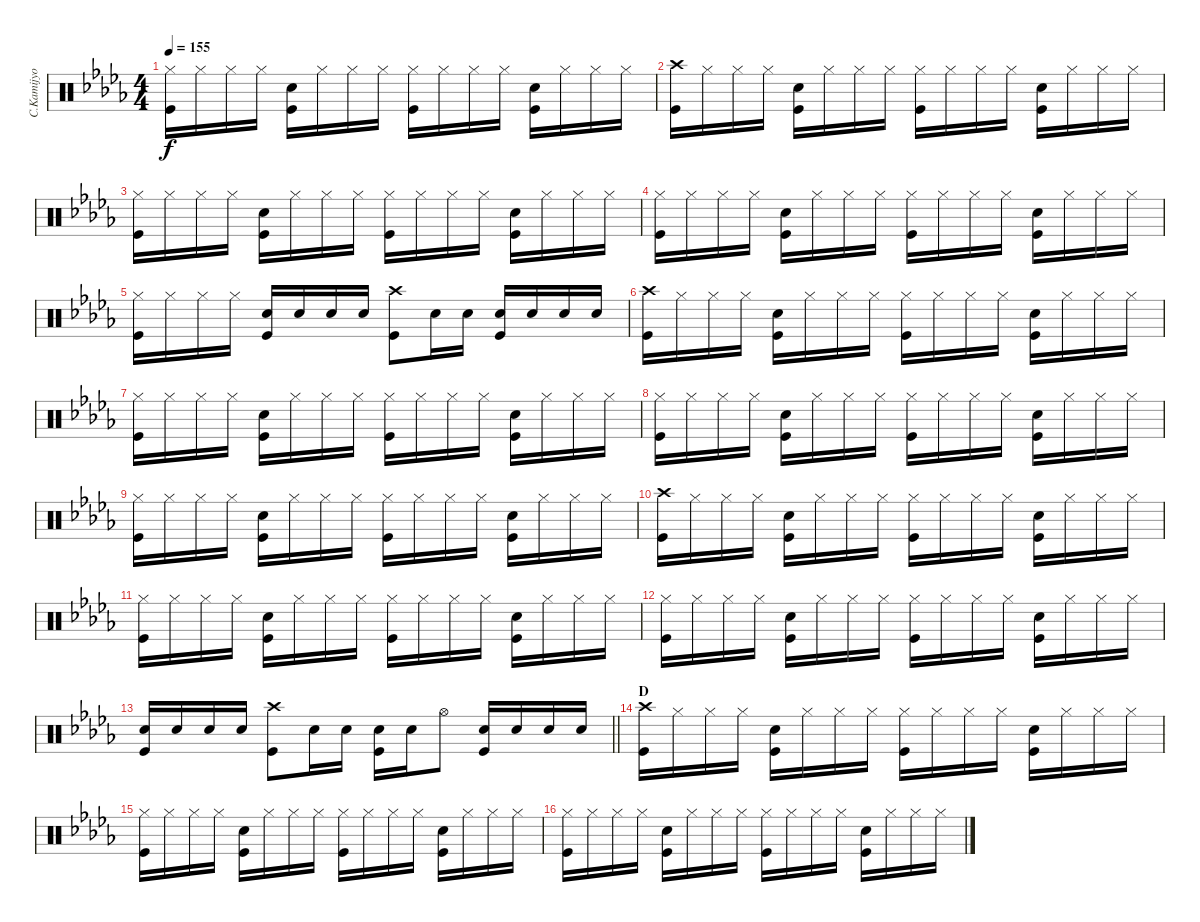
\track ("C.Kamijyo DRUMS" "C.Kamijyo ") {instrument percussion}
\staff {score}
\articulation defaults
\ts (4 4)
\tempo 155
\clef neutral
\ks db
("Hi-Hat (closed)" "Kick (hit)").16{dy f} "Hi-Hat (closed)".16 "Hi-Hat (closed)".16 "Hi-Hat (closed)".16 ("Snare (hit) 2" "Kick (hit)").16 "Hi-Hat (closed)".16 "Hi-Hat (closed)".16 "Hi-Hat (closed)".16 ("Hi-Hat (closed)" "Kick (hit)").16 "Hi-Hat (closed)".16 "Hi-Hat (closed)".16 "Hi-Hat (closed)".16 ("Snare (hit) 2" "Kick (hit)").16 "Hi-Hat (closed)".16 "Hi-Hat (closed)".16 "Hi-Hat (closed)".16 |
("Crash high (hit)" "Kick (hit)").16 "Hi-Hat (closed)".16 "Hi-Hat (closed)".16 "Hi-Hat (closed)".16 ("Snare (hit) 2" "Kick (hit)").16 "Hi-Hat (closed)".16 "Hi-Hat (closed)".16 "Hi-Hat (closed)".16 ("Hi-Hat (closed)" "Kick (hit)").16 "Hi-Hat (closed)".16 "Hi-Hat (closed)".16 "Hi-Hat (closed)".16 ("Snare (hit) 2" "Kick (hit)").16 "Hi-Hat (closed)".16 "Hi-Hat (closed)".16 "Hi-Hat (closed)".16 |
("Hi-Hat (closed)" "Kick (hit)").16 "Hi-Hat (closed)".16 "Hi-Hat (closed)".16 "Hi-Hat (closed)".16 ("Snare (hit) 2" "Kick (hit)").16 "Hi-Hat (closed)".16 "Hi-Hat (closed)".16 "Hi-Hat (closed)".16 ("Hi-Hat (closed)" "Kick (hit)").16 "Hi-Hat (closed)".16 "Hi-Hat (closed)".16 "Hi-Hat (closed)".16 ("Snare (hit) 2" "Kick (hit)").16 "Hi-Hat (closed)".16 "Hi-Hat (closed)".16 "Hi-Hat (closed)".16 |
("Hi-Hat (closed)" "Kick (hit)").16 "Hi-Hat (closed)".16 "Hi-Hat (closed)".16 "Hi-Hat (closed)".16 ("Snare (hit) 2" "Kick (hit)").16 "Hi-Hat (closed)".16 "Hi-Hat (closed)".16 "Hi-Hat (closed)".16 ("Hi-Hat (closed)" "Kick (hit)").16 "Hi-Hat (closed)".16 "Hi-Hat (closed)".16 "Hi-Hat (closed)".16 ("Snare (hit) 2" "Kick (hit)").16 "Hi-Hat (closed)".16 "Hi-Hat (closed)".16 "Hi-Hat (closed)".16 |
("Hi-Hat (closed)" "Kick (hit)").16 "Hi-Hat (closed)".16 "Hi-Hat (closed)".16 "Hi-Hat (closed)".16 ("Snare (hit) 2" "Kick (hit)").16 "Snare (hit) 2".16 "Snare (hit) 2".16 "Snare (hit) 2".16 ("Crash high (hit)" "Kick (hit)").8 "Snare (hit) 2".16 "Snare (hit) 2".16 ("Snare (hit) 2" "Kick (hit)").16 "Snare (hit) 2".16 "Snare (hit) 2".16 "Snare (hit) 2".16 |
("Crash high (hit)" "Kick (hit)").16 "Hi-Hat (closed)".16 "Hi-Hat (closed)".16 "Hi-Hat (closed)".16 ("Snare (hit) 2" "Kick (hit)").16 "Hi-Hat (closed)".16 "Hi-Hat (closed)".16 "Hi-Hat (closed)".16 ("Hi-Hat (closed)" "Kick (hit)").16 "Hi-Hat (closed)".16 "Hi-Hat (closed)".16 "Hi-Hat (closed)".16 ("Snare (hit) 2" "Kick (hit)").16 "Hi-Hat (closed)".16 "Hi-Hat (closed)".16 "Hi-Hat (closed)".16 |
("Hi-Hat (closed)" "Kick (hit)").16 "Hi-Hat (closed)".16 "Hi-Hat (closed)".16 "Hi-Hat (closed)".16 ("Snare (hit) 2" "Kick (hit)").16 "Hi-Hat (closed)".16 "Hi-Hat (closed)".16 "Hi-Hat (closed)".16 ("Hi-Hat (closed)" "Kick (hit)").16 "Hi-Hat (closed)".16 "Hi-Hat (closed)".16 "Hi-Hat (closed)".16 ("Snare (hit) 2" "Kick (hit)").16 "Hi-Hat (closed)".16 "Hi-Hat (closed)".16 "Hi-Hat (closed)".16 |
("Hi-Hat (closed)" "Kick (hit)").16 "Hi-Hat (closed)".16 "Hi-Hat (closed)".16 "Hi-Hat (closed)".16 ("Snare (hit) 2" "Kick (hit)").16 "Hi-Hat (closed)".16 "Hi-Hat (closed)".16 "Hi-Hat (closed)".16 ("Hi-Hat (closed)" "Kick (hit)").16 "Hi-Hat (closed)".16 "Hi-Hat (closed)".16 "Hi-Hat (closed)".16 ("Snare (hit) 2" "Kick (hit)").16 "Hi-Hat (closed)".16 "Hi-Hat (closed)".16 "Hi-Hat (closed)".16 |
("Hi-Hat (closed)" "Kick (hit)").16 "Hi-Hat (closed)".16 "Hi-Hat (closed)".16 "Hi-Hat (closed)".16 ("Snare (hit) 2" "Kick (hit)").16 "Hi-Hat (closed)".16 "Hi-Hat (closed)".16 "Hi-Hat (closed)".16 ("Hi-Hat (closed)" "Kick (hit)").16 "Hi-Hat (closed)".16 "Hi-Hat (closed)".16 "Hi-Hat (closed)".16 ("Snare (hit) 2" "Kick (hit)").16 "Hi-Hat (closed)".16 "Hi-Hat (closed)".16 "Hi-Hat (closed)".16 |
("Crash high (hit)" "Kick (hit)").16 "Hi-Hat (closed)".16 "Hi-Hat (closed)".16 "Hi-Hat (closed)".16 ("Snare (hit) 2" "Kick (hit)").16 "Hi-Hat (closed)".16 "Hi-Hat (closed)".16 "Hi-Hat (closed)".16 ("Hi-Hat (closed)" "Kick (hit)").16 "Hi-Hat (closed)".16 "Hi-Hat (closed)".16 "Hi-Hat (closed)".16 ("Snare (hit) 2" "Kick (hit)").16 "Hi-Hat (closed)".16 "Hi-Hat (closed)".16 "Hi-Hat (closed)".16 |
("Hi-Hat (closed)" "Kick (hit)").16 "Hi-Hat (closed)".16 "Hi-Hat (closed)".16 "Hi-Hat (closed)".16 ("Snare (hit) 2" "Kick (hit)").16 "Hi-Hat (closed)".16 "Hi-Hat (closed)".16 "Hi-Hat (closed)".16 ("Hi-Hat (closed)" "Kick (hit)").16 "Hi-Hat (closed)".16 "Hi-Hat (closed)".16 "Hi-Hat (closed)".16 ("Snare (hit) 2" "Kick (hit)").16 "Hi-Hat (closed)".16 "Hi-Hat (closed)".16 "Hi-Hat (closed)".16 |
("Hi-Hat (closed)" "Kick (hit)").16 "Hi-Hat (closed)".16 "Hi-Hat (closed)".16 "Hi-Hat (closed)".16 ("Snare (hit) 2" "Kick (hit)").16 "Hi-Hat (closed)".16 "Hi-Hat (closed)".16 "Hi-Hat (closed)".16 ("Hi-Hat (closed)" "Kick (hit)").16 "Hi-Hat (closed)".16 "Hi-Hat (closed)".16 "Hi-Hat (closed)".16 ("Snare (hit) 2" "Kick (hit)").16 "Hi-Hat (closed)".16 "Hi-Hat (closed)".16 "Hi-Hat (closed)".16 |
\barLineRight lightlight
("Snare (hit) 2" "Kick (hit)").16 "Snare (hit) 2".16 "Snare (hit) 2".16 "Snare (hit) 2".16 ("Crash high (hit)" "Kick (hit)").8 "Snare (hit) 2".16 "Snare (hit) 2".16 ("Snare (hit) 2" "Kick (hit)").16 "Snare (hit) 2".16 "Hi-Hat (open)".8 ("Snare (hit) 2" "Kick (hit)").16 "Snare (hit) 2".16 "Snare (hit) 2".16 "Snare (hit) 2".16 |
\section ("" "D")
("Crash high (hit)" "Kick (hit)").16 "Hi-Hat (closed)".16 "Hi-Hat (closed)".16 "Hi-Hat (closed)".16 ("Snare (hit) 2" "Kick (hit)").16 "Hi-Hat (closed)".16 "Hi-Hat (closed)".16 "Hi-Hat (closed)".16 ("Hi-Hat (closed)" "Kick (hit)").16 "Hi-Hat (closed)".16 "Hi-Hat (closed)".16 "Hi-Hat (closed)".16 ("Snare (hit) 2" "Kick (hit)").16 "Hi-Hat (closed)".16 "Hi-Hat (closed)".16 "Hi-Hat (closed)".16 |
("Hi-Hat (closed)" "Kick (hit)").16 "Hi-Hat (closed)".16 "Hi-Hat (closed)".16 "Hi-Hat (closed)".16 ("Snare (hit) 2" "Kick (hit)").16 "Hi-Hat (closed)".16 "Hi-Hat (closed)".16 "Hi-Hat (closed)".16 ("Hi-Hat (closed)" "Kick (hit)").16 "Hi-Hat (closed)".16 "Hi-Hat (closed)".16 "Hi-Hat (closed)".16 ("Snare (hit) 2" "Kick (hit)").16 "Hi-Hat (closed)".16 "Hi-Hat (closed)".16 "Hi-Hat (closed)".16 |
("Hi-Hat (closed)" "Kick (hit)").16 "Hi-Hat (closed)".16 "Hi-Hat (closed)".16 "Hi-Hat (closed)".16 ("Snare (hit) 2" "Kick (hit)").16 "Hi-Hat (closed)".16 "Hi-Hat (closed)".16 "Hi-Hat (closed)".16 ("Hi-Hat (closed)" "Kick (hit)").16 "Hi-Hat (closed)".16 "Hi-Hat (closed)".16 "Hi-Hat (closed)".16 ("Snare (hit) 2" "Kick (hit)").16 "Hi-Hat (closed)".16 "Hi-Hat (closed)".16 "Hi-Hat (closed)".16
